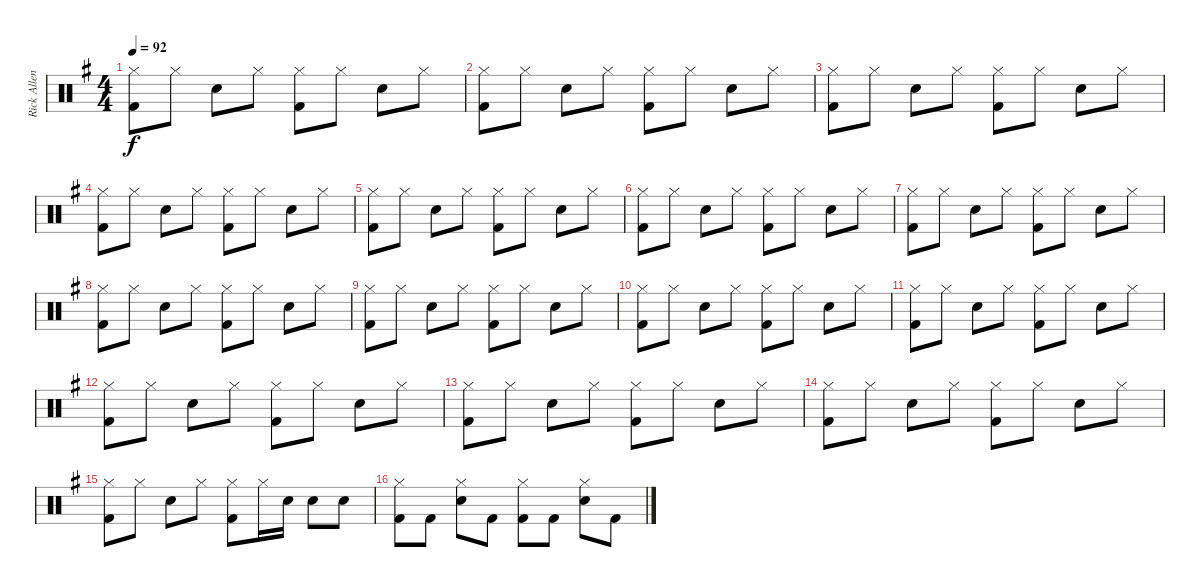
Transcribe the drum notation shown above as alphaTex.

\track ("Rick Allen" "Rick Allen") {instrument percussion}
\staff {score}
\articulation defaults
\ts (4 4)
\tempo 92
\clef neutral
\ks eminor
("Hi-Hat (closed)" "Kick (hit) 2").8{dy f} "Hi-Hat (closed)".8 "Electric Snare (hit)".8 "Hi-Hat (closed)".8 ("Hi-Hat (closed)" "Kick (hit) 2").8 "Hi-Hat (closed)".8 "Electric Snare (hit)".8 "Hi-Hat (closed)".8 |
("Hi-Hat (closed)" "Kick (hit) 2").8 "Hi-Hat (closed)".8 "Electric Snare (hit)".8 "Hi-Hat (closed)".8 ("Hi-Hat (closed)" "Kick (hit) 2").8 "Hi-Hat (closed)".8 "Electric Snare (hit)".8 "Hi-Hat (closed)".8 |
("Hi-Hat (closed)" "Kick (hit) 2").8 "Hi-Hat (closed)".8 "Electric Snare (hit)".8 "Hi-Hat (closed)".8 ("Hi-Hat (closed)" "Kick (hit) 2").8 "Hi-Hat (closed)".8 "Electric Snare (hit)".8 "Hi-Hat (closed)".8 |
("Hi-Hat (closed)" "Kick (hit) 2").8 "Hi-Hat (closed)".8 "Electric Snare (hit)".8 "Hi-Hat (closed)".8 ("Hi-Hat (closed)" "Kick (hit) 2").8 "Hi-Hat (closed)".8 "Electric Snare (hit)".8 "Hi-Hat (closed)".8 |
("Hi-Hat (closed)" "Kick (hit) 2").8 "Hi-Hat (closed)".8 "Electric Snare (hit)".8 "Hi-Hat (closed)".8 ("Hi-Hat (closed)" "Kick (hit) 2").8 "Hi-Hat (closed)".8 "Electric Snare (hit)".8 "Hi-Hat (closed)".8 |
("Hi-Hat (closed)" "Kick (hit) 2").8 "Hi-Hat (closed)".8 "Electric Snare (hit)".8 "Hi-Hat (closed)".8 ("Hi-Hat (closed)" "Kick (hit) 2").8 "Hi-Hat (closed)".8 "Electric Snare (hit)".8 "Hi-Hat (closed)".8 |
("Hi-Hat (closed)" "Kick (hit) 2").8 "Hi-Hat (closed)".8 "Electric Snare (hit)".8 "Hi-Hat (closed)".8 ("Hi-Hat (closed)" "Kick (hit) 2").8 "Hi-Hat (closed)".8 "Electric Snare (hit)".8 "Hi-Hat (closed)".8 |
("Hi-Hat (closed)" "Kick (hit) 2").8 "Hi-Hat (closed)".8 "Electric Snare (hit)".8 "Hi-Hat (closed)".8 ("Hi-Hat (closed)" "Kick (hit) 2").8 "Hi-Hat (closed)".8 "Electric Snare (hit)".8 "Hi-Hat (closed)".8 |
("Hi-Hat (closed)" "Kick (hit) 2").8 "Hi-Hat (closed)".8 "Electric Snare (hit)".8 "Hi-Hat (closed)".8 ("Hi-Hat (closed)" "Kick (hit) 2").8 "Hi-Hat (closed)".8 "Electric Snare (hit)".8 "Hi-Hat (closed)".8 |
("Hi-Hat (closed)" "Kick (hit) 2").8 "Hi-Hat (closed)".8 "Electric Snare (hit)".8 "Hi-Hat (closed)".8 ("Hi-Hat (closed)" "Kick (hit) 2").8 "Hi-Hat (closed)".8 "Electric Snare (hit)".8 "Hi-Hat (closed)".8 |
("Hi-Hat (closed)" "Kick (hit) 2").8 "Hi-Hat (closed)".8 "Electric Snare (hit)".8 "Hi-Hat (closed)".8 ("Hi-Hat (closed)" "Kick (hit) 2").8 "Hi-Hat (closed)".8 "Electric Snare (hit)".8 "Hi-Hat (closed)".8 |
("Hi-Hat (closed)" "Kick (hit) 2").8 "Hi-Hat (closed)".8 "Electric Snare (hit)".8 "Hi-Hat (closed)".8 ("Hi-Hat (closed)" "Kick (hit) 2").8 "Hi-Hat (closed)".8 "Electric Snare (hit)".8 "Hi-Hat (closed)".8 |
("Hi-Hat (closed)" "Kick (hit) 2").8 "Hi-Hat (closed)".8 "Electric Snare (hit)".8 "Hi-Hat (closed)".8 ("Hi-Hat (closed)" "Kick (hit) 2").8 "Hi-Hat (closed)".8 "Electric Snare (hit)".8 "Hi-Hat (closed)".8 |
("Hi-Hat (closed)" "Kick (hit) 2").8 "Hi-Hat (closed)".8 "Electric Snare (hit)".8 "Hi-Hat (closed)".8 ("Hi-Hat (closed)" "Kick (hit) 2").8 "Hi-Hat (closed)".8 "Electric Snare (hit)".8 "Hi-Hat (closed)".8 |
("Hi-Hat (closed)" "Kick (hit) 2").8 "Hi-Hat (closed)".8 "Electric Snare (hit)".8 "Hi-Hat (closed)".8 ("Hi-Hat (closed)" "Kick (hit) 2").8 "Hi-Hat (closed)".16 "Electric Snare (hit)".16 "Electric Snare (hit)".8 "Electric Snare (hit)".8 |
("Hi-Hat (closed)" "Kick (hit) 2").8 "Kick (hit) 2".8 ("Hi-Hat (closed)" "Electric Snare (hit)").8 "Kick (hit) 2".8 ("Hi-Hat (closed)" "Kick (hit) 2").8 "Kick (hit) 2".8 ("Hi-Hat (closed)" "Electric Snare (hit)").8 "Kick (hit) 2".8
